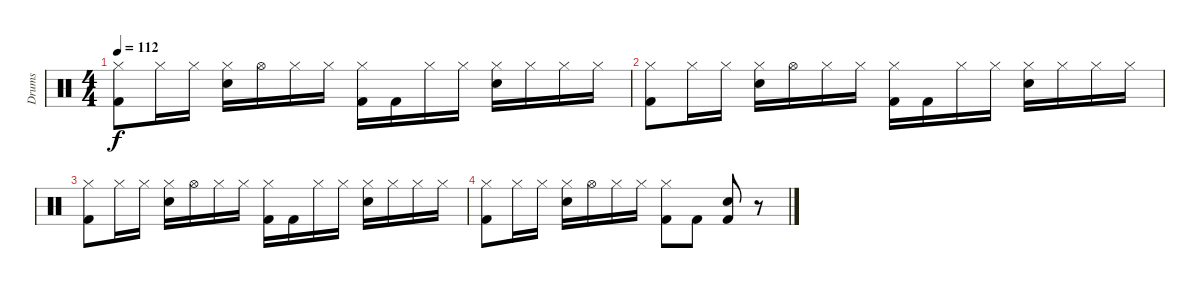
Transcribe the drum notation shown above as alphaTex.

\track ("Drums" "Drums") {instrument percussion}
\staff {score}
\articulation defaults
\ts (4 4)
\tempo 112
\clef neutral
\ks c
("Hi-Hat (closed)" "Kick (hit) 2").8{dy f} "Hi-Hat (closed)".16 "Hi-Hat (closed)".16 ("Hi-Hat (closed)" "Electric Snare (hit)").16 "Hi-Hat (open)".16 "Hi-Hat (closed)".16 "Hi-Hat (closed)".16 ("Hi-Hat (closed)" "Kick (hit) 2").16 "Kick (hit) 2".16 "Hi-Hat (closed)".16 "Hi-Hat (closed)".16 ("Hi-Hat (closed)" "Electric Snare (hit)").16 "Hi-Hat (closed)".16 "Hi-Hat (closed)".16 "Hi-Hat (closed)".16 |
("Hi-Hat (closed)" "Kick (hit) 2").8 "Hi-Hat (closed)".16 "Hi-Hat (closed)".16 ("Hi-Hat (closed)" "Electric Snare (hit)").16 "Hi-Hat (open)".16 "Hi-Hat (closed)".16 "Hi-Hat (closed)".16 ("Hi-Hat (closed)" "Kick (hit) 2").16 "Kick (hit) 2".16 "Hi-Hat (closed)".16 "Hi-Hat (closed)".16 ("Hi-Hat (closed)" "Electric Snare (hit)").16 "Hi-Hat (closed)".16 "Hi-Hat (closed)".16 "Hi-Hat (closed)".16 |
("Hi-Hat (closed)" "Kick (hit) 2").8 "Hi-Hat (closed)".16 "Hi-Hat (closed)".16 ("Hi-Hat (closed)" "Electric Snare (hit)").16 "Hi-Hat (open)".16 "Hi-Hat (closed)".16 "Hi-Hat (closed)".16 ("Hi-Hat (closed)" "Kick (hit) 2").16 "Kick (hit) 2".16 "Hi-Hat (closed)".16 "Hi-Hat (closed)".16 ("Hi-Hat (closed)" "Electric Snare (hit)").16 "Hi-Hat (closed)".16 "Hi-Hat (closed)".16 "Hi-Hat (closed)".16 |
("Hi-Hat (closed)" "Kick (hit) 2").8 "Hi-Hat (closed)".16 "Hi-Hat (closed)".16 ("Hi-Hat (closed)" "Electric Snare (hit)").16 "Hi-Hat (open)".16 "Hi-Hat (closed)".16 "Hi-Hat (closed)".16 ("Hi-Hat (closed)" "Kick (hit) 2").8 "Kick (hit) 2".8 ("Electric Snare (hit)" "Kick (hit) 2").8 r.8
